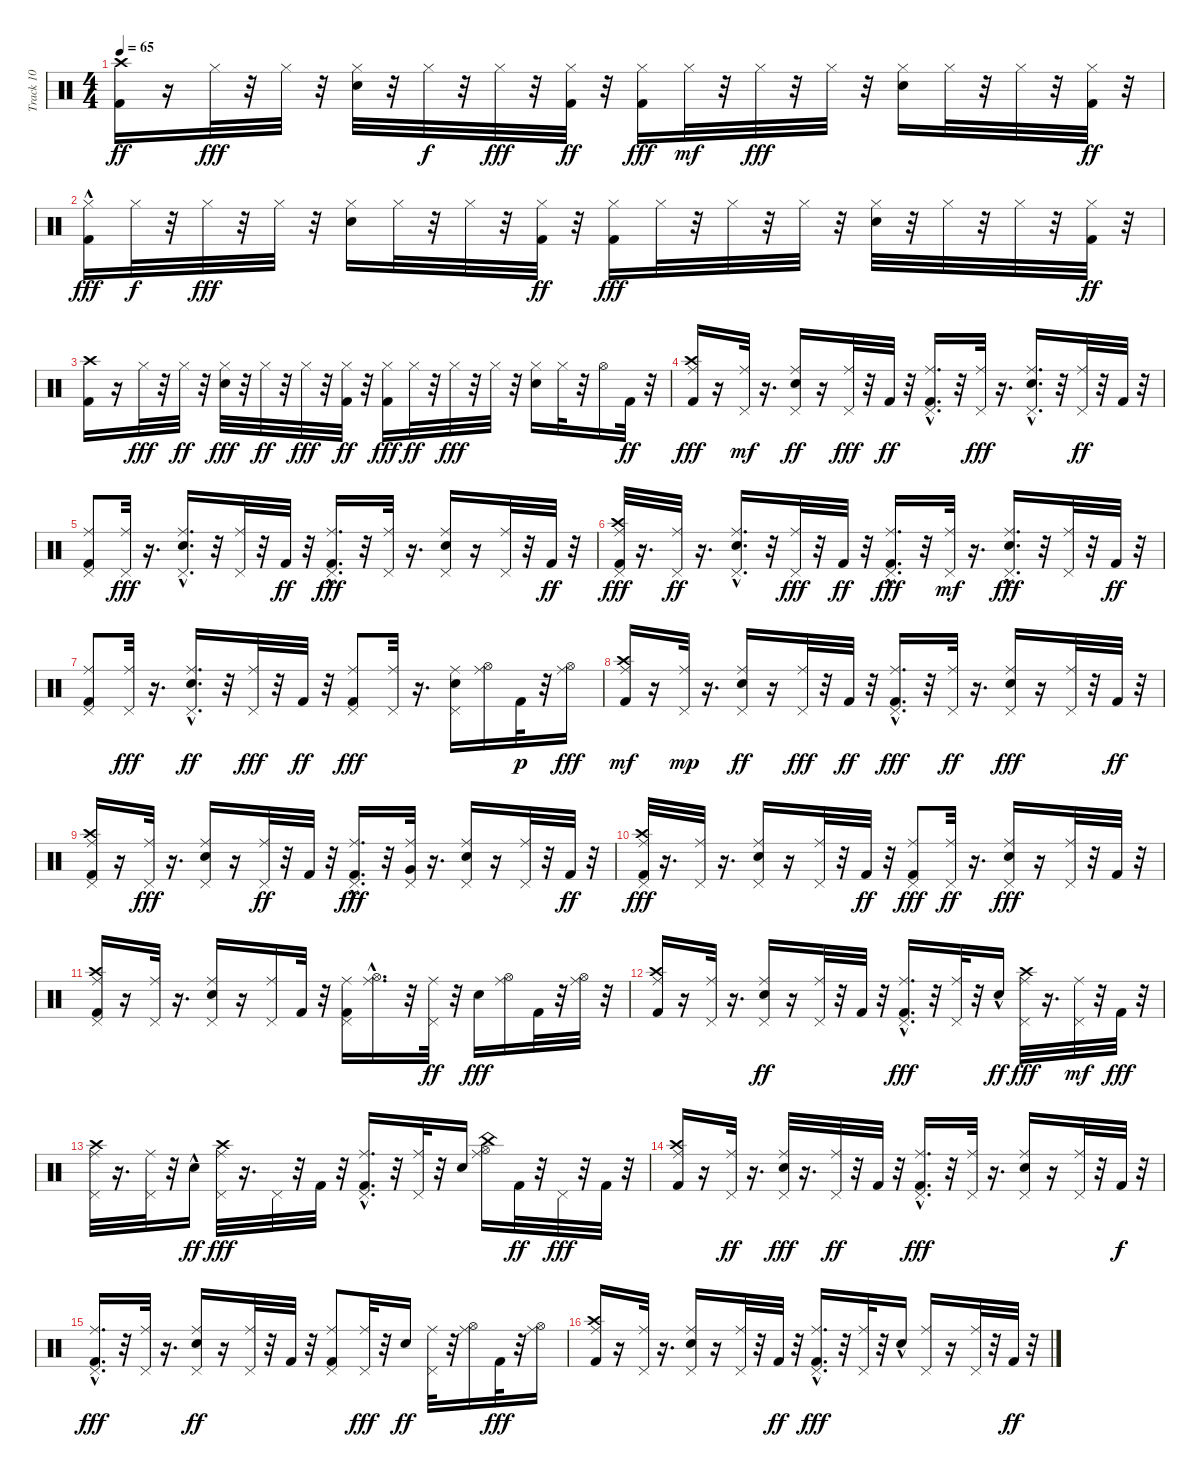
\track ("Track 10" "Track 10") {instrument percussion}
\staff {score}
\articulation defaults
\ts (4 4)
\tempo 65
\clef neutral
\ks c
("Kick (hit) 2" "Crash high (hit)").16{dy ff} r.16 "Hi-Hat (closed)".32{dy fff} r.32 "Hi-Hat (closed)".32 r.32 ("Electric Snare (hit)" "Hi-Hat (closed)").32 r.32 "Hi-Hat (closed)".32{dy f} r.32 "Hi-Hat (closed)".32{dy fff} r.32 ("Hi-Hat (closed)" "Kick (hit) 2").32{dy ff} r.32 ("Kick (hit) 2" "Hi-Hat (closed)").16{dy fff} "Hi-Hat (closed)".32{dy mf} r.32 "Hi-Hat (closed)".32{dy fff} r.32 "Hi-Hat (closed)".32 r.32 ("Electric Snare (hit)" "Hi-Hat (closed)").16 "Hi-Hat (closed)".32 r.32 "Hi-Hat (closed)".32 r.32 ("Hi-Hat (closed)" "Kick (hit) 2").32{dy ff} r.32 |
("Kick (hit) 2"{hac} "Hi-Hat (closed)").16{dy fff} "Hi-Hat (closed)".32{dy f} r.32 "Hi-Hat (closed)".32{dy fff} r.32 "Hi-Hat (closed)".32 r.32 ("Electric Snare (hit)" "Hi-Hat (closed)").16 "Hi-Hat (closed)".32 r.32 "Hi-Hat (closed)".32 r.32 ("Hi-Hat (closed)" "Kick (hit) 2").32{dy ff} r.32 ("Kick (hit) 2" "Hi-Hat (closed)").16{dy fff} "Hi-Hat (closed)".32 r.32 "Hi-Hat (closed)".32 r.32 "Hi-Hat (closed)".32 r.32 ("Electric Snare (hit)" "Hi-Hat (closed)").32 r.32 "Hi-Hat (closed)".32 r.32 "Hi-Hat (closed)".32 r.32 ("Hi-Hat (closed)" "Kick (hit) 2").32{dy ff} r.32 |
("Kick (hit) 2" "Crash high (hit)").16 r.16 "Hi-Hat (closed)".32{dy fff} r.32 "Hi-Hat (closed)".32{dy ff} r.32 ("Electric Snare (hit)" "Hi-Hat (closed)").32{dy fff} r.32 "Hi-Hat (closed)".32{dy ff} r.32 "Hi-Hat (closed)".32{dy fff} r.32 ("Hi-Hat (closed)" "Kick (hit) 2").32{dy ff} r.32 ("Kick (hit) 2" "Hi-Hat (closed)").16{dy fff} "Hi-Hat (closed)".32{dy ff} r.32 "Hi-Hat (closed)".32{dy fff} r.32 "Hi-Hat (closed)".32 r.32 ("Electric Snare (hit)" "Hi-Hat (closed)").16 "Hi-Hat (closed)".32 r.32 "Hi-Hat (open)".16 "Kick (hit) 2".32{dy ff} r.32 |
("Kick (hit) 2" "Crash high (hit)" "Ride (middle)").16{dy fff} r.16 ("Pedal Hi-Hat (hit)" "Ride (middle)").32{dy mf} r.16{d} ("Electric Snare (hit)" "Pedal Hi-Hat (hit)" "Ride (middle)").16{dy ff} r.16 ("Ride (middle)" "Pedal Hi-Hat (hit)").32{dy fff} r.32 "Kick (hit) 2".32{dy ff} r.32 ("Pedal Hi-Hat (hit)" "Ride (middle)" "Kick (hit) 2"{hac}).16{d} r.32 ("Ride (middle)" "Pedal Hi-Hat (hit)").32{dy fff} r.16{d} ("Electric Snare (hit)"{hac} "Ride (middle)" "Pedal Hi-Hat (hit)").16{d} r.32 ("Pedal Hi-Hat (hit)" "Ride (middle)").32{dy ff} r.32 "Kick (hit) 2".32 r.32 |
("Pedal Hi-Hat (hit)" "Kick (hit) 2" "Ride (middle)").8 ("Ride (middle)" "Pedal Hi-Hat (hit)").32{dy fff} r.16{d} ("Electric Snare (hit)"{hac} "Ride (middle)" "Pedal Hi-Hat (hit)").16{d} r.32 ("Ride (middle)" "Pedal Hi-Hat (hit)").32 r.32 "Kick (hit) 2".32{dy ff} r.32 ("Kick (hit) 2"{hac} "Ride (middle)" "Pedal Hi-Hat (hit)").16{d dy fff} r.32 ("Pedal Hi-Hat (hit)" "Ride (middle)").32 r.16{d} ("Electric Snare (hit)" "Ride (middle)" "Pedal Hi-Hat (hit)").16 r.16 ("Pedal Hi-Hat (hit)" "Ride (middle)").32 r.32 "Kick (hit) 2".32{dy ff} r.32 |
("Kick (hit) 2" "Crash high (hit)" "Pedal Hi-Hat (hit)" "Ride (middle)").32{dy fff} r.16{d} ("Ride (middle)" "Pedal Hi-Hat (hit)").32{dy ff} r.16{d} ("Electric Snare (hit)"{hac} "Pedal Hi-Hat (hit)" "Ride (middle)").16{d} r.32 ("Pedal Hi-Hat (hit)" "Ride (middle)").32{dy fff} r.32 "Kick (hit) 2".32{dy ff} r.32 ("Kick (hit) 2"{hac} "Pedal Hi-Hat (hit)" "Ride (middle)").16{d dy fff} r.32 ("Pedal Hi-Hat (hit)" "Ride (middle)").32{dy mf} r.16{d} ("Electric Snare (hit)"{hac} "Pedal Hi-Hat (hit)" "Ride (middle)").16{d dy fff} r.32 ("Pedal Hi-Hat (hit)" "Ride (middle)").32 r.32 "Kick (hit) 2".32{dy ff} r.32 |
("Kick (hit) 2" "Pedal Hi-Hat (hit)" "Ride (middle)").8 ("Pedal Hi-Hat (hit)" "Ride (middle)").32{dy fff} r.16{d} ("Electric Snare (hit)"{hac} "Pedal Hi-Hat (hit)" "Ride (middle)").16{d dy ff} r.32 ("Pedal Hi-Hat (hit)" "Ride (middle)").32{dy fff} r.32 "Kick (hit) 2".32{dy ff} r.32 ("Kick (hit) 2" "Ride (middle)" "Pedal Hi-Hat (hit)").8{dy fff} ("Pedal Hi-Hat (hit)" "Ride (middle)").32 r.16{d} ("Electric Snare (hit)" "Pedal Hi-Hat (hit)" "Ride (middle)").16 ("Hi-Hat (open)" "Ride (middle)").16 "Kick (hit) 2".32{dy p} r.32 ("Ride (middle)" "Hi-Hat (open)").16{dy fff} |
("Kick (hit) 2" "Crash high (hit)" "Ride (middle)").16{dy mf} r.16 ("Pedal Hi-Hat (hit)" "Ride (middle)").32{dy mp} r.16{d} ("Electric Snare (hit)" "Pedal Hi-Hat (hit)" "Ride (middle)").16{dy ff} r.16 ("Ride (middle)" "Pedal Hi-Hat (hit)").32{dy fff} r.32 "Kick (hit) 2".32{dy ff} r.32 ("Kick (hit) 2"{hac} "Ride (middle)" "Pedal Hi-Hat (hit)").16{d dy fff} r.32 ("Pedal Hi-Hat (hit)" "Ride (middle)").32{dy ff} r.16{d} ("Pedal Hi-Hat (hit)" "Electric Snare (hit)" "Ride (middle)").16{dy fff} r.16 ("Ride (middle)" "Pedal Hi-Hat (hit)").32 r.32 "Kick (hit) 2".32{dy ff} r.32 |
("Kick (hit) 2" "Crash high (hit)" "Pedal Hi-Hat (hit)" "Ride (middle)").16 r.16 ("Ride (middle)" "Pedal Hi-Hat (hit)").32{dy fff} r.16{d} ("Electric Snare (hit)" "Pedal Hi-Hat (hit)" "Ride (middle)").16 r.16 ("Pedal Hi-Hat (hit)" "Ride (middle)").32{dy ff} r.32 "Kick (hit) 2".32 r.32 ("Kick (hit) 2"{hac} "Ride (middle)" "Pedal Hi-Hat (hit)").16{d dy fff} r.32 ("Very Low Tom (hit)" "Ride (middle)" "Pedal Hi-Hat (hit)").32 r.16{d} ("Ride (middle)" "Electric Snare (hit)" "Pedal Hi-Hat (hit)").16 r.16 ("Pedal Hi-Hat (hit)" "Ride (middle)").32 r.32 "Kick (hit) 2".32{dy ff} r.32 |
("Kick (hit) 2" "Crash high (hit)" "Pedal Hi-Hat (hit)" "Ride (middle)").32{dy fff} r.16{d} ("Pedal Hi-Hat (hit)" "Ride (middle)").32 r.16{d} ("Electric Snare (hit)" "Pedal Hi-Hat (hit)" "Ride (middle)").16 r.16 ("Pedal Hi-Hat (hit)" "Ride (middle)").32 r.32 "Kick (hit) 2".32{dy ff} r.32 ("Pedal Hi-Hat (hit)" "Kick (hit) 2" "Ride (middle)").8{dy fff} ("Pedal Hi-Hat (hit)" "Ride (middle)").32{dy ff} r.16{d} ("Ride (middle)" "Pedal Hi-Hat (hit)" "Electric Snare (hit)").16{dy fff} r.16 ("Pedal Hi-Hat (hit)" "Ride (middle)").32 r.32 "Kick (hit) 2".32 r.32 |
("Kick (hit) 2" "Crash high (hit)" "Pedal Hi-Hat (hit)" "Ride (middle)").16 r.16 ("Pedal Hi-Hat (hit)" "Ride (middle)").32 r.16{d} ("Electric Snare (hit)" "Ride (middle)" "Pedal Hi-Hat (hit)").16 r.16 ("Pedal Hi-Hat (hit)" "Ride (middle)").16 "Kick (hit) 2".32 r.32 ("Kick (hit) 2" "Pedal Hi-Hat (hit)" "Ride (middle)").16 ("Hi-Hat (open)"{hac} "Ride (middle)").16{d} r.32 ("Pedal Hi-Hat (hit)" "Ride (middle)").32{dy ff} r.32 "Electric Snare (hit)".16{dy fff} ("Hi-Hat (open)" "Ride (middle)").16 "Kick (hit) 2".32 r.32 ("Ride (middle)" "Hi-Hat (open)").32 r.32 |
("Crash high (hit)" "Kick (hit) 2" "Ride (middle)").16 r.16 ("Ride (middle)" "Pedal Hi-Hat (hit)").32 r.16{d} ("Electric Snare (hit)" "Pedal Hi-Hat (hit)" "Ride (middle)").16{dy ff} r.16 ("Pedal Hi-Hat (hit)" "Ride (middle)").32 r.32 "Kick (hit) 2".32 r.32 ("Kick (hit) 2"{hac} "Ride (middle)" "Pedal Hi-Hat (hit)").16{d dy fff} r.32 ("Ride (middle)" "Pedal Hi-Hat (hit)").32 r.32 "Electric Snare (hit)"{hac}.16{dy ff} ("Crash high (hit)" "Pedal Hi-Hat (hit)" "Ride (middle)").32{dy fff} r.16{d} ("Pedal Hi-Hat (hit)" "Ride (middle)").32{dy mf} r.32 "Kick (hit) 2".32{dy fff} r.32 |
("Crash high (hit)" "Pedal Hi-Hat (hit)" "Ride (middle)").32 r.16{d} ("Ride (middle)" "Pedal Hi-Hat (hit)").32 r.32 "Electric Snare (hit)"{hac}.16{dy ff} ("Crash high (hit)" "Ride (middle)" "Pedal Hi-Hat (hit)").32{dy fff} r.16{d} "Pedal Hi-Hat (hit)".32 r.32 "Kick (hit) 2".32 r.32 ("Kick (hit) 2"{hac} "Pedal Hi-Hat (hit)" "Ride (middle)").16{d} r.32 ("Ride (middle)" "Pedal Hi-Hat (hit)").32 r.32 "Electric Snare (hit)".16 ("China (hit)" "Hi-Hat (open)" "Ride (middle)").16 "Kick (hit) 2".32{dy ff} r.32 "Pedal Hi-Hat (hit)".32{dy fff} r.32 "Kick (hit) 2".32 r.32 |
("Kick (hit) 2" "Crash high (hit)" "Ride (middle)").16 r.16 ("Pedal Hi-Hat (hit)" "Ride (middle)").32{dy ff} r.16{d} ("Pedal Hi-Hat (hit)" "Ride (middle)" "Electric Snare (hit)").32{dy fff} r.16{d} ("Pedal Hi-Hat (hit)" "Ride (middle)").32{dy ff} r.32 "Kick (hit) 2".32 r.32 ("Kick (hit) 2"{hac} "Pedal Hi-Hat (hit)" "Ride (middle)").16{d dy fff} r.32 ("Ride (middle)" "Pedal Hi-Hat (hit)").32 r.16{d} ("Electric Snare (hit)" "Ride (middle)" "Pedal Hi-Hat (hit)").16 r.16 ("Ride (middle)" "Pedal Hi-Hat (hit)").32 r.32 "Kick (hit) 2".32{dy f} r.32 |
("Kick (hit) 2"{hac} "Pedal Hi-Hat (hit)" "Ride (middle)").16{d dy fff} r.32 ("Ride (middle)" "Pedal Hi-Hat (hit)").32 r.16{d} ("Electric Snare (hit)" "Pedal Hi-Hat (hit)" "Ride (middle)").16{dy ff} r.16 ("Pedal Hi-Hat (hit)" "Ride (middle)").32 r.32 "Kick (hit) 2".32 r.32 ("Pedal Hi-Hat (hit)" "Kick (hit) 2" "Ride (middle)").8 ("Ride (middle)" "Pedal Hi-Hat (hit)").32{dy fff} r.32 "Electric Snare (hit)".16{dy ff} ("Pedal Hi-Hat (hit)" "Ride (middle)").32 r.32 ("Hi-Hat (open)" "Ride (middle)").16 "Kick (hit) 2".32{dy fff} r.32 ("Ride (middle)" "Hi-Hat (open)").16 |
("Crash high (hit)" "Kick (hit) 2" "Ride (middle)").16 r.16 ("Ride (middle)" "Pedal Hi-Hat (hit)").32 r.16{d} ("Pedal Hi-Hat (hit)" "Ride (middle)" "Electric Snare (hit)").16 r.16 ("Pedal Hi-Hat (hit)" "Ride (middle)").32 r.32 "Kick (hit) 2".32{dy ff} r.32 ("Kick (hit) 2"{hac} "Pedal Hi-Hat (hit)" "Ride (middle)").16{d dy fff} r.32 ("Pedal Hi-Hat (hit)" "Ride (middle)").32 r.32 "Electric Snare (hit)"{hac}.16 ("Ride (middle)" "Pedal Hi-Hat (hit)").16 r.16 ("Pedal Hi-Hat (hit)" "Ride (middle)").32 r.32 "Kick (hit) 2".32{dy ff} r.32
